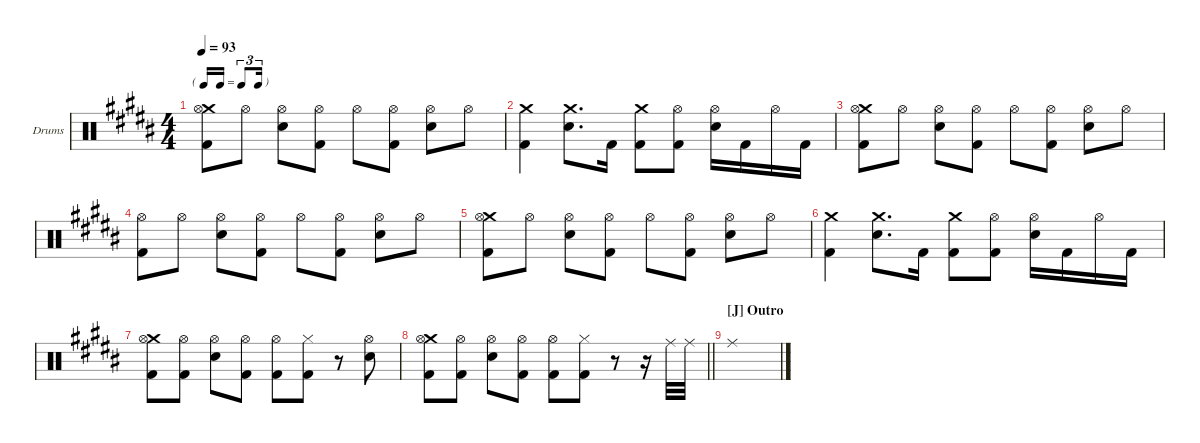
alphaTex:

\hideDynamics
\bracketExtendMode groupsimilarinstruments
\firstSystemTrackNameOrientation horizontal
\otherSystemsTrackNameOrientation horizontal
\track ("Drumkit" "Drums") {multiBarRest instrument percussion}
\staff {score}
\articulation defaults
\ts (4 4)
\tf triplet16th
\tempo 93
\clef neutral
\ks b
("Crash medium (hit)"{acc forcenatural} "Hi-Hat (open)"{acc forcenatural} "Kick (hit) 2"{acc forcenatural}).8{dy f} "Hi-Hat (open)"{acc forcenatural}.8 ("Hi-Hat (open)"{acc forcenatural} "Snare (hit) 2"{acc forcenatural}).8 ("Hi-Hat (open)"{acc forcenatural} "Kick (hit) 2"{acc forcenatural}).8 "Hi-Hat (open)"{acc forcenatural}.8 ("Hi-Hat (open)"{acc forcenatural} "Kick (hit) 2"{acc forcenatural}).8 ("Hi-Hat (open)"{acc forcenatural} "Snare (hit) 2"{acc forcenatural}).8 "Hi-Hat (open)"{acc forcenatural}.8 |
("Crash medium (hit)"{acc forcenatural} "Kick (hit) 2"{acc forcenatural}).4 ("Crash medium (hit)"{acc forcenatural} "Snare (hit) 2"{acc forcenatural}).8{d} "Kick (hit) 2"{acc forcenatural}.16 ("Crash medium (hit)"{acc forcenatural} "Kick (hit) 2"{acc forcenatural}).8 ("Hi-Hat (open)"{acc forcenatural} "Kick (hit) 2"{acc forcenatural}).8 ("Hi-Hat (open)"{acc forcenatural} "Snare (hit) 2"{acc forcenatural}).16 "Kick (hit) 2"{acc forcenatural}.16 "Hi-Hat (open)"{acc forcenatural}.16 "Kick (hit) 2"{acc forcenatural}.16 |
("Crash medium (hit)"{acc forcenatural} "Hi-Hat (open)"{acc forcenatural} "Kick (hit) 2"{acc forcenatural}).8 "Hi-Hat (open)"{acc forcenatural}.8 ("Hi-Hat (open)"{acc forcenatural} "Snare (hit) 2"{acc forcenatural}).8 ("Hi-Hat (open)"{acc forcenatural} "Kick (hit) 2"{acc forcenatural}).8 "Hi-Hat (open)"{acc forcenatural}.8 ("Hi-Hat (open)"{acc forcenatural} "Kick (hit) 2"{acc forcenatural}).8 ("Hi-Hat (open)"{acc forcenatural} "Snare (hit) 2"{acc forcenatural}).8 "Hi-Hat (open)"{acc forcenatural}.8 |
("Hi-Hat (open)"{acc forcenatural} "Kick (hit) 2"{acc forcenatural}).8 "Hi-Hat (open)"{acc forcenatural}.8 ("Hi-Hat (open)"{acc forcenatural} "Snare (hit) 2"{acc forcenatural}).8 ("Hi-Hat (open)"{acc forcenatural} "Kick (hit) 2"{acc forcenatural}).8 "Hi-Hat (open)"{acc forcenatural}.8 ("Hi-Hat (open)"{acc forcenatural} "Kick (hit) 2"{acc forcenatural}).8 ("Hi-Hat (open)"{acc forcenatural} "Snare (hit) 2"{acc forcenatural}).8 "Hi-Hat (open)"{acc forcenatural}.8 |
("Crash medium (hit)"{acc forcenatural} "Hi-Hat (open)"{acc forcenatural} "Kick (hit) 2"{acc forcenatural}).8 "Hi-Hat (open)"{acc forcenatural}.8 ("Hi-Hat (open)"{acc forcenatural} "Snare (hit) 2"{acc forcenatural}).8 ("Hi-Hat (open)"{acc forcenatural} "Kick (hit) 2"{acc forcenatural}).8 "Hi-Hat (open)"{acc forcenatural}.8 ("Hi-Hat (open)"{acc forcenatural} "Kick (hit) 2"{acc forcenatural}).8 ("Hi-Hat (open)"{acc forcenatural} "Snare (hit) 2"{acc forcenatural}).8 "Hi-Hat (open)"{acc forcenatural}.8 |
("Crash medium (hit)"{acc forcenatural} "Kick (hit) 2"{acc forcenatural}).4 ("Crash medium (hit)"{acc forcenatural} "Snare (hit) 2"{acc forcenatural}).8{d} "Kick (hit) 2"{acc forcenatural}.16 ("Crash medium (hit)"{acc forcenatural} "Kick (hit) 2"{acc forcenatural}).8 ("Hi-Hat (open)"{acc forcenatural} "Kick (hit) 2"{acc forcenatural}).8 ("Hi-Hat (open)"{acc forcenatural} "Snare (hit) 2"{acc forcenatural}).16 "Kick (hit) 2"{acc forcenatural}.16 "Hi-Hat (open)"{acc forcenatural}.16 "Kick (hit) 2"{acc forcenatural}.16 |
("Crash medium (hit)"{acc forcenatural} "Hi-Hat (open)"{acc forcenatural} "Kick (hit) 2"{acc forcenatural}).8 ("Hi-Hat (open)"{acc forcenatural} "Kick (hit) 2"{acc forcenatural}).8 ("Hi-Hat (open)"{acc forcenatural} "Snare (hit) 2"{acc forcenatural}).8 ("Hi-Hat (open)"{acc forcenatural} "Kick (hit) 2"{acc forcenatural}).8 ("Hi-Hat (open)"{acc forcenatural} "Kick (hit) 2"{acc forcenatural}).8 ("Hi-Hat (closed)"{acc forcenatural} "Kick (hit) 2"{acc forcenatural}).8 r.8 ("Hi-Hat (open)"{acc forcenatural} "Snare (hit) 2"{acc forcenatural}).8 |
\barLineRight lightlight
("Crash medium (hit)"{acc forcenatural} "Hi-Hat (open)"{acc forcenatural} "Kick (hit) 2"{acc forcenatural}).8 ("Hi-Hat (open)"{acc forcenatural} "Kick (hit) 2"{acc forcenatural}).8 ("Hi-Hat (open)"{acc forcenatural} "Snare (hit) 2"{acc forcenatural}).8 ("Hi-Hat (open)"{acc forcenatural} "Kick (hit) 2"{acc forcenatural}).8 ("Hi-Hat (open)"{acc forcenatural} "Kick (hit) 2"{acc forcenatural}).8 ("Hi-Hat (closed)"{acc forcenatural} "Kick (hit) 2"{acc forcenatural}).8 r.8 r.16 "Ride (middle)"{acc forcenatural}.32 "Ride (middle)"{acc forcenatural}.32 |
\section ("J" "Outro")
"Ride (middle)"{acc forcenatural}.1
